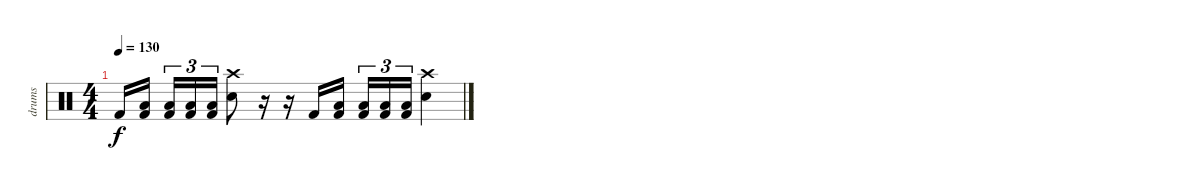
\track ("drums" "drums") {instrument percussion}
\staff {score}
\articulation defaults
\ts (4 4)
\tempo 130
\clef neutral
\ks c "Kick (hit) 2".16{dy f}
("Low Floor Tom (hit)" "Kick (hit) 2").16{beam splitsecondary} ("Low Floor Tom (hit)" "Kick (hit) 2").16{tu (3 2)} ("Low Floor Tom (hit)" "Kick (hit) 2").16{tu (3 2)} ("Low Floor Tom (hit)" "Kick (hit) 2").16{tu (3 2)} ("Crash high (hit)" "Snare (hit) 2").8 r.16 r.16 "Kick (hit) 2".16 ("Low Floor Tom (hit)" "Kick (hit) 2").16{beam splitsecondary} ("Low Floor Tom (hit)" "Kick (hit) 2").16{tu (3 2)} ("Low Floor Tom (hit)" "Kick (hit) 2").16{tu (3 2)} ("Low Floor Tom (hit)" "Kick (hit) 2").16{tu (3 2)} ("Crash high (hit)" "Snare (hit) 2").4
